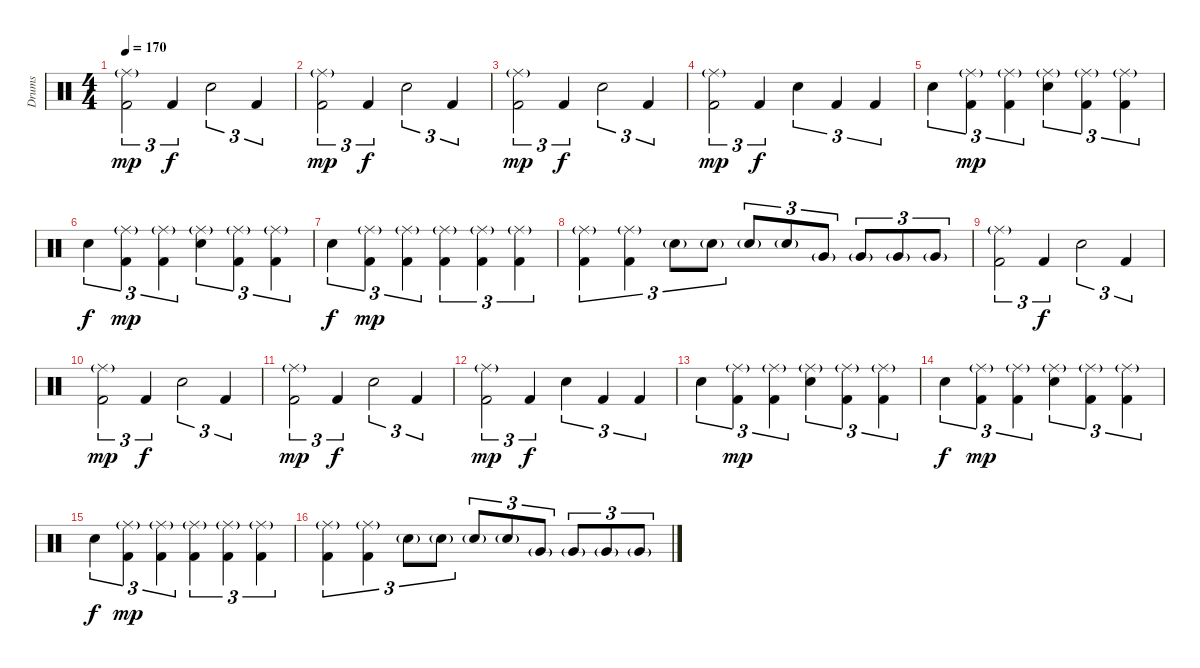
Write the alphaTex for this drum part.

\track ("Drums" "Drums") {instrument percussion}
\staff {score}
\articulation defaults
\ts (4 4)
\tempo 170
\clef neutral
\ks c
("Ride (middle)"{g} "Kick (hit) 2").2{tu (3 2) dy mp} "Kick (hit) 2".4{tu (3 2) dy f} "Electric Snare (hit)".2{tu (3 2)} "Kick (hit) 2".4{tu (3 2)} |
("Ride (middle)"{g} "Kick (hit) 2").2{tu (3 2) dy mp} "Kick (hit) 2".4{tu (3 2) dy f} "Electric Snare (hit)".2{tu (3 2)} "Kick (hit) 2".4{tu (3 2)} |
("Ride (middle)"{g} "Kick (hit) 2").2{tu (3 2) dy mp} "Kick (hit) 2".4{tu (3 2) dy f} "Electric Snare (hit)".2{tu (3 2)} "Kick (hit) 2".4{tu (3 2)} |
("Ride (middle)"{g} "Kick (hit) 2").2{tu (3 2) dy mp} "Kick (hit) 2".4{tu (3 2) dy f} "Electric Snare (hit)".4{tu (3 2)} "Kick (hit) 2".4{tu (3 2)} "Kick (hit) 2".4{tu (3 2)} |
"Electric Snare (hit)".4{tu (3 2)} ("Ride (middle)"{g} "Kick (hit) 2").4{tu (3 2) dy mp} ("Ride (middle)"{g} "Kick (hit) 2").4{tu (3 2)} ("Ride (middle)"{g} "Electric Snare (hit)").4{tu (3 2)} ("Ride (middle)"{g} "Kick (hit) 2").4{tu (3 2)} ("Ride (middle)"{g} "Kick (hit) 2").4{tu (3 2)} |
"Electric Snare (hit)".4{tu (3 2) dy f} ("Ride (middle)"{g} "Kick (hit) 2").4{tu (3 2) dy mp} ("Ride (middle)"{g} "Kick (hit) 2").4{tu (3 2)} ("Ride (middle)"{g} "Electric Snare (hit)").4{tu (3 2)} ("Ride (middle)"{g} "Kick (hit) 2").4{tu (3 2)} ("Ride (middle)"{g} "Kick (hit) 2").4{tu (3 2)} |
"Electric Snare (hit)".4{tu (3 2) dy f} ("Ride (middle)"{g} "Kick (hit) 2").4{tu (3 2) dy mp} ("Ride (middle)"{g} "Kick (hit) 2").4{tu (3 2)} ("Ride (middle)"{g} "Kick (hit) 2").4{tu (3 2)} ("Ride (middle)"{g} "Kick (hit) 2").4{tu (3 2)} ("Ride (middle)"{g} "Kick (hit) 2").4{tu (3 2)} |
("Ride (middle)"{g} "Kick (hit) 2").4{tu (3 2)} ("Ride (middle)"{g} "Kick (hit) 2").4{tu (3 2)} "Electric Snare (hit)"{g}.8{tu (3 2)} "Electric Snare (hit)"{g}.8{tu (3 2)} "Electric Snare (hit)"{g}.8{tu (3 2)} "Electric Snare (hit)"{g}.8{tu (3 2)} "Very Low Tom (hit)"{g}.8{tu (3 2)} "Very Low Tom (hit)"{g}.8{tu (3 2)} "Very Low Tom (hit)"{g}.8{tu (3 2)} "Very Low Tom (hit)"{g}.8{tu (3 2)} |
("Ride (middle)"{g} "Kick (hit) 2").2{tu (3 2)} "Kick (hit) 2".4{tu (3 2) dy f} "Electric Snare (hit)".2{tu (3 2)} "Kick (hit) 2".4{tu (3 2)} |
("Ride (middle)"{g} "Kick (hit) 2").2{tu (3 2) dy mp} "Kick (hit) 2".4{tu (3 2) dy f} "Electric Snare (hit)".2{tu (3 2)} "Kick (hit) 2".4{tu (3 2)} |
("Ride (middle)"{g} "Kick (hit) 2").2{tu (3 2) dy mp} "Kick (hit) 2".4{tu (3 2) dy f} "Electric Snare (hit)".2{tu (3 2)} "Kick (hit) 2".4{tu (3 2)} |
("Ride (middle)"{g} "Kick (hit) 2").2{tu (3 2) dy mp} "Kick (hit) 2".4{tu (3 2) dy f} "Electric Snare (hit)".4{tu (3 2)} "Kick (hit) 2".4{tu (3 2)} "Kick (hit) 2".4{tu (3 2)} |
"Electric Snare (hit)".4{tu (3 2)} ("Ride (middle)"{g} "Kick (hit) 2").4{tu (3 2) dy mp} ("Ride (middle)"{g} "Kick (hit) 2").4{tu (3 2)} ("Ride (middle)"{g} "Electric Snare (hit)").4{tu (3 2)} ("Ride (middle)"{g} "Kick (hit) 2").4{tu (3 2)} ("Ride (middle)"{g} "Kick (hit) 2").4{tu (3 2)} |
"Electric Snare (hit)".4{tu (3 2) dy f} ("Ride (middle)"{g} "Kick (hit) 2").4{tu (3 2) dy mp} ("Ride (middle)"{g} "Kick (hit) 2").4{tu (3 2)} ("Ride (middle)"{g} "Electric Snare (hit)").4{tu (3 2)} ("Ride (middle)"{g} "Kick (hit) 2").4{tu (3 2)} ("Ride (middle)"{g} "Kick (hit) 2").4{tu (3 2)} |
"Electric Snare (hit)".4{tu (3 2) dy f} ("Ride (middle)"{g} "Kick (hit) 2").4{tu (3 2) dy mp} ("Ride (middle)"{g} "Kick (hit) 2").4{tu (3 2)} ("Ride (middle)"{g} "Kick (hit) 2").4{tu (3 2)} ("Ride (middle)"{g} "Kick (hit) 2").4{tu (3 2)} ("Ride (middle)"{g} "Kick (hit) 2").4{tu (3 2)} |
("Ride (middle)"{g} "Kick (hit) 2").4{tu (3 2)} ("Ride (middle)"{g} "Kick (hit) 2").4{tu (3 2)} "Electric Snare (hit)"{g}.8{tu (3 2)} "Electric Snare (hit)"{g}.8{tu (3 2)} "Electric Snare (hit)"{g}.8{tu (3 2)} "Electric Snare (hit)"{g}.8{tu (3 2)} "Very Low Tom (hit)"{g}.8{tu (3 2)} "Very Low Tom (hit)"{g}.8{tu (3 2)} "Very Low Tom (hit)"{g}.8{tu (3 2)} "Very Low Tom (hit)"{g}.8{tu (3 2)}
